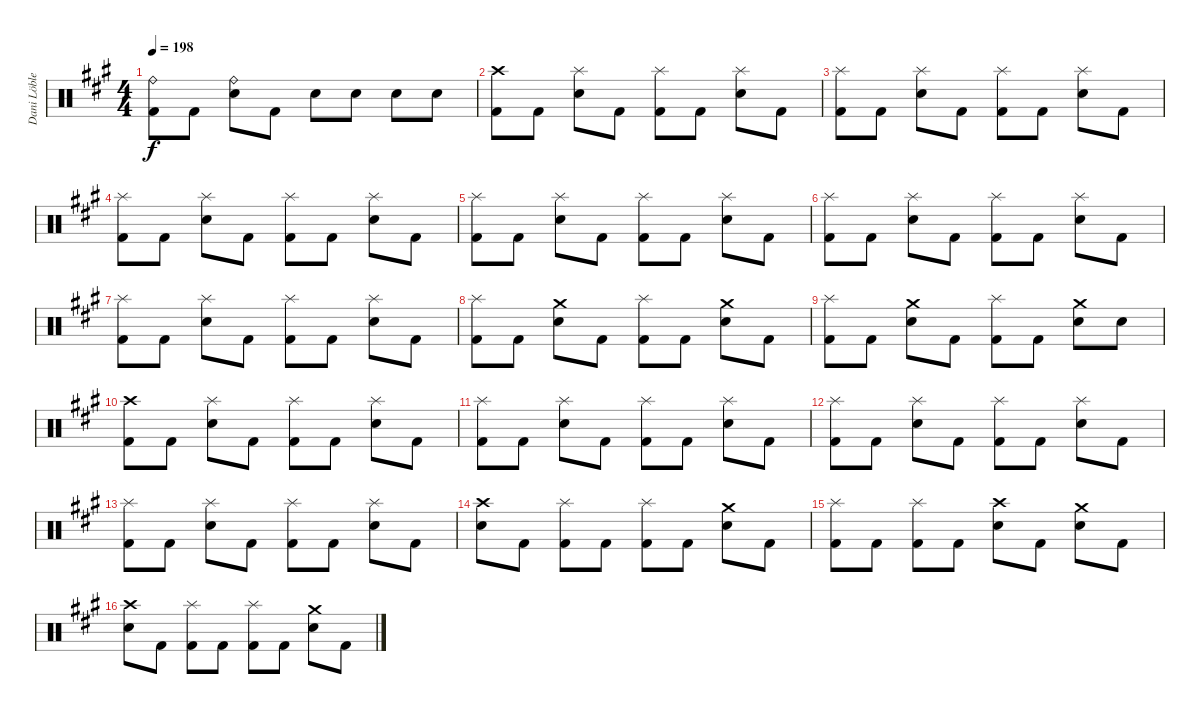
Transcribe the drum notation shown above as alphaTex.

\track ("Dani Löble" "Dani Löble") {instrument percussion}
\staff {score}
\articulation defaults
\ts (4 4)
\tempo 198
\clef neutral
\ks f#minor
("Ride (bell)" "Kick (hit) 2").8{dy f} "Kick (hit) 2".8 ("Ride (bell)" "Snare (hit) 2").8 "Kick (hit) 2".8 "Snare (hit) 2".8 "Snare (hit) 2".8 "Snare (hit) 2".8 "Snare (hit) 2".8 |
("Crash high (hit)" "Kick (hit) 2").8 "Kick (hit) 2".8 ("Splash (hit)" "Snare (hit) 2").8 "Kick (hit) 2".8 ("Splash (hit)" "Kick (hit) 2").8 "Kick (hit) 2".8 ("Splash (hit)" "Snare (hit) 2").8 "Kick (hit) 2".8 |
("Splash (hit)" "Kick (hit) 2").8 "Kick (hit) 2".8 ("Splash (hit)" "Snare (hit) 2").8 "Kick (hit) 2".8 ("Splash (hit)" "Kick (hit) 2").8 "Kick (hit) 2".8 ("Splash (hit)" "Snare (hit) 2").8 "Kick (hit) 2".8 |
("Splash (hit)" "Kick (hit) 2").8 "Kick (hit) 2".8 ("Splash (hit)" "Snare (hit) 2").8 "Kick (hit) 2".8 ("Splash (hit)" "Kick (hit) 2").8 "Kick (hit) 2".8 ("Splash (hit)" "Snare (hit) 2").8 "Kick (hit) 2".8 |
("Splash (hit)" "Kick (hit) 2").8 "Kick (hit) 2".8 ("Splash (hit)" "Snare (hit) 2").8 "Kick (hit) 2".8 ("Splash (hit)" "Kick (hit) 2").8 "Kick (hit) 2".8 ("Splash (hit)" "Snare (hit) 2").8 "Kick (hit) 2".8 |
("Splash (hit)" "Kick (hit) 2").8 "Kick (hit) 2".8 ("Splash (hit)" "Snare (hit) 2").8 "Kick (hit) 2".8 ("Splash (hit)" "Kick (hit) 2").8 "Kick (hit) 2".8 ("Splash (hit)" "Snare (hit) 2").8 "Kick (hit) 2".8 |
("Splash (hit)" "Kick (hit) 2").8 "Kick (hit) 2".8 ("Splash (hit)" "Snare (hit) 2").8 "Kick (hit) 2".8 ("Splash (hit)" "Kick (hit) 2").8 "Kick (hit) 2".8 ("Splash (hit)" "Snare (hit) 2").8 "Kick (hit) 2".8 |
("Splash (hit)" "Kick (hit) 2").8 "Kick (hit) 2".8 ("Crash medium (hit)" "Snare (hit) 2").8 "Kick (hit) 2".8 ("Splash (hit)" "Kick (hit) 2").8 "Kick (hit) 2".8 ("Crash medium (hit)" "Snare (hit) 2").8 "Kick (hit) 2".8 |
("Splash (hit)" "Kick (hit) 2").8 "Kick (hit) 2".8 ("Crash medium (hit)" "Snare (hit) 2").8 "Kick (hit) 2".8 ("Splash (hit)" "Kick (hit) 2").8 "Kick (hit) 2".8 ("Crash medium (hit)" "Snare (hit) 2").8 "Snare (hit) 2".8 |
("Crash high (hit)" "Kick (hit) 2").8 "Kick (hit) 2".8 ("Splash (hit)" "Snare (hit) 2").8 "Kick (hit) 2".8 ("Splash (hit)" "Kick (hit) 2").8 "Kick (hit) 2".8 ("Splash (hit)" "Snare (hit) 2").8 "Kick (hit) 2".8 |
("Splash (hit)" "Kick (hit) 2").8 "Kick (hit) 2".8 ("Splash (hit)" "Snare (hit) 2").8 "Kick (hit) 2".8 ("Splash (hit)" "Kick (hit) 2").8 "Kick (hit) 2".8 ("Splash (hit)" "Snare (hit) 2").8 "Kick (hit) 2".8 |
("Splash (hit)" "Kick (hit) 2").8 "Kick (hit) 2".8 ("Splash (hit)" "Snare (hit) 2").8 "Kick (hit) 2".8 ("Splash (hit)" "Kick (hit) 2").8 "Kick (hit) 2".8 ("Splash (hit)" "Snare (hit) 2").8 "Kick (hit) 2".8 |
("Splash (hit)" "Kick (hit) 2").8 "Kick (hit) 2".8 ("Splash (hit)" "Snare (hit) 2").8 "Kick (hit) 2".8 ("Splash (hit)" "Kick (hit) 2").8 "Kick (hit) 2".8 ("Splash (hit)" "Snare (hit) 2").8 "Kick (hit) 2".8 |
("Crash high (hit)" "Snare (hit) 2").8 "Kick (hit) 2".8 ("Splash (hit)" "Kick (hit) 2").8 "Kick (hit) 2".8 ("Splash (hit)" "Kick (hit) 2").8 "Kick (hit) 2".8 ("Crash medium (hit)" "Snare (hit) 2").8 "Kick (hit) 2".8 |
("Splash (hit)" "Kick (hit) 2").8 "Kick (hit) 2".8 ("Splash (hit)" "Kick (hit) 2").8 "Kick (hit) 2".8 ("Crash high (hit)" "Snare (hit) 2").8 "Kick (hit) 2".8 ("Crash medium (hit)" "Snare (hit) 2").8 "Kick (hit) 2".8 |
("Crash high (hit)" "Snare (hit) 2").8 "Kick (hit) 2".8 ("Splash (hit)" "Kick (hit) 2").8 "Kick (hit) 2".8 ("Splash (hit)" "Kick (hit) 2").8 "Kick (hit) 2".8 ("Crash medium (hit)" "Snare (hit) 2").8 "Kick (hit) 2".8
